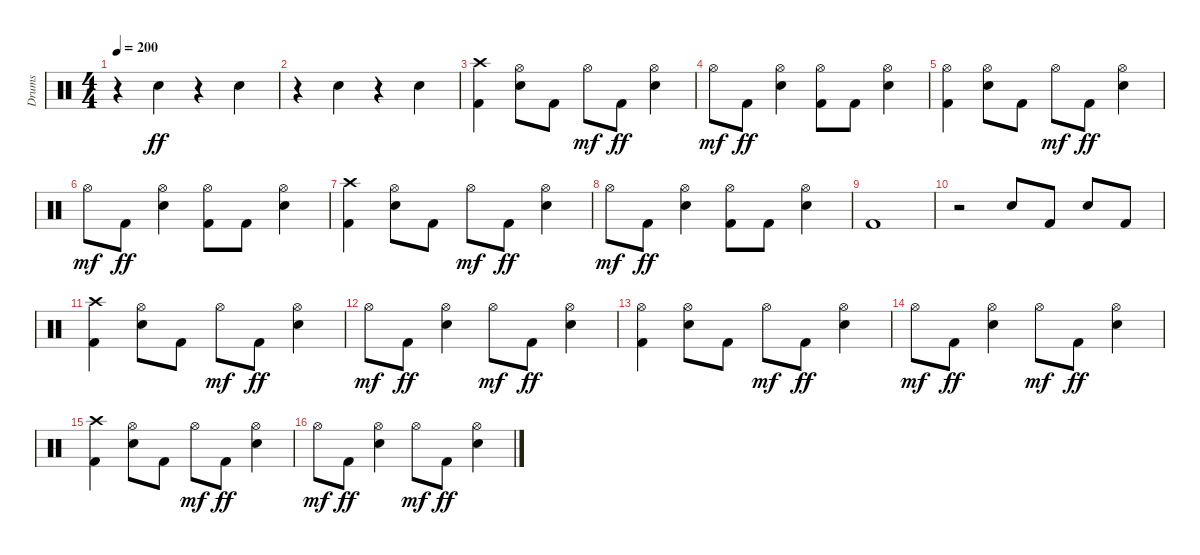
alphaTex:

\track ("Drums" "Drums") {instrument percussion}
\staff {score}
\articulation defaults
\ts (4 4)
\tempo 200
\clef neutral
\ks c
r.4{dy ff} "Electric Snare (hit)".4 r.4 "Electric Snare (hit)".4 |
r.4 "Electric Snare (hit)".4 r.4 "Electric Snare (hit)".4 |
("Crash high (hit)" "Kick (hit) 2").4 ("Hi-Hat (open)" "Electric Snare (hit)").8 "Kick (hit) 2".8 "Hi-Hat (open)".8{dy mf} "Kick (hit) 2".8{dy ff} ("Hi-Hat (open)" "Electric Snare (hit)").4 |
"Hi-Hat (open)".8{dy mf} "Kick (hit) 2".8{dy ff} ("Hi-Hat (open)" "Electric Snare (hit)").4 ("Hi-Hat (open)" "Kick (hit) 2").8 "Kick (hit) 2".8 ("Hi-Hat (open)" "Electric Snare (hit)").4 |
("Hi-Hat (open)" "Kick (hit) 2").4 ("Hi-Hat (open)" "Electric Snare (hit)").8 "Kick (hit) 2".8 "Hi-Hat (open)".8{dy mf} "Kick (hit) 2".8{dy ff} ("Hi-Hat (open)" "Electric Snare (hit)").4 |
"Hi-Hat (open)".8{dy mf} "Kick (hit) 2".8{dy ff} ("Hi-Hat (open)" "Electric Snare (hit)").4 ("Hi-Hat (open)" "Kick (hit) 2").8 "Kick (hit) 2".8 ("Hi-Hat (open)" "Electric Snare (hit)").4 |
("Crash high (hit)" "Kick (hit) 2").4 ("Hi-Hat (open)" "Electric Snare (hit)").8 "Kick (hit) 2".8 "Hi-Hat (open)".8{dy mf} "Kick (hit) 2".8{dy ff} ("Hi-Hat (open)" "Electric Snare (hit)").4 |
"Hi-Hat (open)".8{dy mf} "Kick (hit) 2".8{dy ff} ("Hi-Hat (open)" "Electric Snare (hit)").4 ("Hi-Hat (open)" "Kick (hit) 2").8 "Kick (hit) 2".8 ("Hi-Hat (open)" "Electric Snare (hit)").4 |
"Kick (hit) 2".1 |
r.2 "Electric Snare (hit)".8 "Kick (hit) 2".8 "Electric Snare (hit)".8 "Kick (hit) 2".8 |
("Crash high (hit)" "Kick (hit) 2").4 ("Hi-Hat (open)" "Electric Snare (hit)").8 "Kick (hit) 2".8 "Hi-Hat (open)".8{dy mf} "Kick (hit) 2".8{dy ff} ("Hi-Hat (open)" "Electric Snare (hit)").4 |
"Hi-Hat (open)".8{dy mf} "Kick (hit) 2".8{dy ff} ("Hi-Hat (open)" "Electric Snare (hit)").4 "Hi-Hat (open)".8{dy mf} "Kick (hit) 2".8{dy ff} ("Hi-Hat (open)" "Electric Snare (hit)").4 |
("Hi-Hat (open)" "Kick (hit) 2").4 ("Hi-Hat (open)" "Electric Snare (hit)").8 "Kick (hit) 2".8 "Hi-Hat (open)".8{dy mf} "Kick (hit) 2".8{dy ff} ("Hi-Hat (open)" "Electric Snare (hit)").4 |
"Hi-Hat (open)".8{dy mf} "Kick (hit) 2".8{dy ff} ("Hi-Hat (open)" "Electric Snare (hit)").4 "Hi-Hat (open)".8{dy mf} "Kick (hit) 2".8{dy ff} ("Hi-Hat (open)" "Electric Snare (hit)").4 |
("Crash high (hit)" "Kick (hit) 2").4 ("Hi-Hat (open)" "Electric Snare (hit)").8 "Kick (hit) 2".8 "Hi-Hat (open)".8{dy mf} "Kick (hit) 2".8{dy ff} ("Hi-Hat (open)" "Electric Snare (hit)").4 |
"Hi-Hat (open)".8{dy mf} "Kick (hit) 2".8{dy ff} ("Hi-Hat (open)" "Electric Snare (hit)").4 "Hi-Hat (open)".8{dy mf} "Kick (hit) 2".8{dy ff} ("Hi-Hat (open)" "Electric Snare (hit)").4
